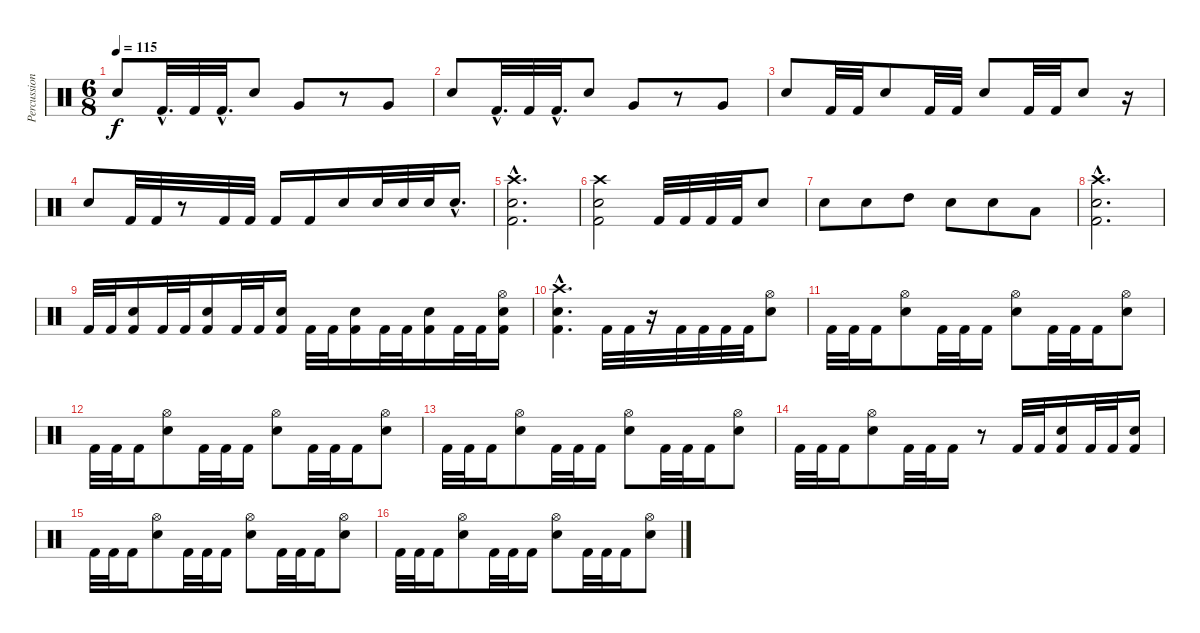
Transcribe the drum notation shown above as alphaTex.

\track ("Percussioni" "Percussion") {instrument percussion}
\staff {score}
\articulation defaults
\ts (6 8)
\tempo 115
\clef neutral
\ks c "Electric Snare (hit)".8{dy f} "Kick (hit) 2"{hac}.32{d} "Kick (hit) 2".32 "Kick (hit) 2"{hac}.32{d} "Electric Snare (hit)".8 "Very Low Tom (hit)".8
r.8 "Very Low Tom (hit)".8 |
"Electric Snare (hit)".8 "Kick (hit) 2"{hac}.32{d} "Kick (hit) 2".32 "Kick (hit) 2"{hac}.32{d} "Electric Snare (hit)".8 "Very Low Tom (hit)".8 r.8 "Very Low Tom (hit)".8 |
"Electric Snare (hit)".8 "Kick (hit) 2".32 "Kick (hit) 2".32 "Electric Snare (hit)".8 "Kick (hit) 2".32 "Kick (hit) 2".32 "Electric Snare (hit)".8 "Kick (hit) 2".32 "Kick (hit) 2".32 "Electric Snare (hit)".8 r.16 |
"Electric Snare (hit)".8 "Kick (hit) 2".32 "Kick (hit) 2".32 r.8 "Kick (hit) 2".32 "Kick (hit) 2".32 "Kick (hit) 2".16 "Kick (hit) 2".16 "Electric Snare (hit)".16 "Electric Snare (hit)".32 "Electric Snare (hit)".32 "Electric Snare (hit)".32 "Electric Snare (hit)"{hac}.16{d} |
("Crash high (hit)"{hac} "Electric Snare (hit)"{hac} "Kick (hit) 2"{hac}).2{d} |
("Crash high (hit)" "Electric Snare (hit)" "Kick (hit) 2").2 "Kick (hit) 2".32 "Kick (hit) 2".32 "Kick (hit) 2".32 "Kick (hit) 2".32 "Electric Snare (hit)".8 |
"Electric Snare (hit)".8 "Electric Snare (hit)".8 "High Tom (hit)".8 "Electric Snare (hit)".8 "Electric Snare (hit)".8 "Low Tom (hit)".8 |
("Crash high (hit)"{hac} "Electric Snare (hit)"{hac} "Kick (hit) 2"{hac}).2{d} |
"Kick (hit) 2".32 "Kick (hit) 2".32 ("Electric Snare (hit)" "Kick (hit) 2").16 "Kick (hit) 2".32 "Kick (hit) 2".32 ("Electric Snare (hit)" "Kick (hit) 2").16 "Kick (hit) 2".32 "Kick (hit) 2".32 ("Electric Snare (hit)" "Kick (hit) 2").16 "Kick (hit) 2".32 "Kick (hit) 2".32 ("Electric Snare (hit)" "Kick (hit) 2").16 "Kick (hit) 2".32 "Kick (hit) 2".32 ("Electric Snare (hit)" "Kick (hit) 2").16 "Kick (hit) 2".32 "Kick (hit) 2".32 ("Hi-Hat (open)" "Electric Snare (hit)" "Kick (hit) 2").16 |
("Crash high (hit)"{hac} "Electric Snare (hit)"{hac} "Kick (hit) 2"{hac}).4{d} "Kick (hit) 2".32 "Kick (hit) 2".32 r.16 "Kick (hit) 2".32 "Kick (hit) 2".32 "Kick (hit) 2".32 "Kick (hit) 2".32 ("Hi-Hat (open)" "Electric Snare (hit)").8 |
"Kick (hit) 2".32 "Kick (hit) 2".32 "Kick (hit) 2".16 ("Hi-Hat (open)" "Electric Snare (hit)").8 "Kick (hit) 2".32 "Kick (hit) 2".32 "Kick (hit) 2".16 ("Hi-Hat (open)" "Electric Snare (hit)").8 "Kick (hit) 2".32 "Kick (hit) 2".32 "Kick (hit) 2".16 ("Hi-Hat (open)" "Electric Snare (hit)").8 |
"Kick (hit) 2".32 "Kick (hit) 2".32 "Kick (hit) 2".16 ("Hi-Hat (open)" "Electric Snare (hit)").8 "Kick (hit) 2".32 "Kick (hit) 2".32 "Kick (hit) 2".16 ("Hi-Hat (open)" "Electric Snare (hit)").8 "Kick (hit) 2".32 "Kick (hit) 2".32 "Kick (hit) 2".16 ("Hi-Hat (open)" "Electric Snare (hit)").8 |
"Kick (hit) 2".32 "Kick (hit) 2".32 "Kick (hit) 2".16 ("Hi-Hat (open)" "Electric Snare (hit)").8 "Kick (hit) 2".32 "Kick (hit) 2".32 "Kick (hit) 2".16 ("Hi-Hat (open)" "Electric Snare (hit)").8 "Kick (hit) 2".32 "Kick (hit) 2".32 "Kick (hit) 2".16 ("Hi-Hat (open)" "Electric Snare (hit)").8 |
"Kick (hit) 2".32 "Kick (hit) 2".32 "Kick (hit) 2".16 ("Hi-Hat (open)" "Electric Snare (hit)").8 "Kick (hit) 2".32 "Kick (hit) 2".32 "Kick (hit) 2".16 r.8 "Kick (hit) 2".32 "Kick (hit) 2".32 ("Electric Snare (hit)" "Kick (hit) 2").16 "Kick (hit) 2".32 "Kick (hit) 2".32 ("Electric Snare (hit)" "Kick (hit) 2").16 |
"Kick (hit) 2".32 "Kick (hit) 2".32 "Kick (hit) 2".16 ("Hi-Hat (open)" "Electric Snare (hit)").8 "Kick (hit) 2".32 "Kick (hit) 2".32 "Kick (hit) 2".16 ("Hi-Hat (open)" "Electric Snare (hit)").8 "Kick (hit) 2".32 "Kick (hit) 2".32 "Kick (hit) 2".16 ("Hi-Hat (open)" "Electric Snare (hit)").8 |
"Kick (hit) 2".32 "Kick (hit) 2".32 "Kick (hit) 2".16 ("Hi-Hat (open)" "Electric Snare (hit)").8 "Kick (hit) 2".32 "Kick (hit) 2".32 "Kick (hit) 2".16 ("Hi-Hat (open)" "Electric Snare (hit)").8 "Kick (hit) 2".32 "Kick (hit) 2".32 "Kick (hit) 2".16 ("Hi-Hat (open)" "Electric Snare (hit)").8
